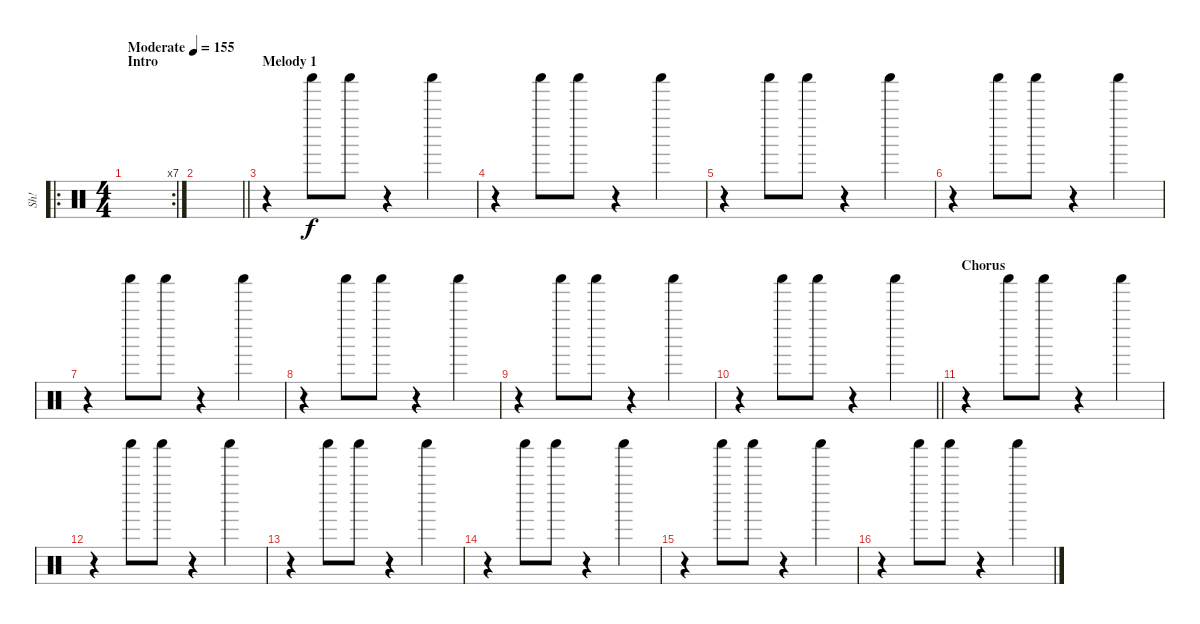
\track ("Sh!" "Sh!") {instrument percussion}
\staff {score}
\articulation defaults
\ro
\rc 7
\ts (4 4)
\section ("" "Intro")
\tempo (155 "Moderate")
\clef neutral
\ks c
|
\barLineRight lightlight
|
\section ("" "Melody 1")
r.4 "Shaker (hit)".8 "Shaker (hit)".8 r.4 "Shaker (hit)".4 |
r.4 "Shaker (hit)".8 "Shaker (hit)".8 r.4 "Shaker (hit)".4 |
r.4 "Shaker (hit)".8 "Shaker (hit)".8 r.4 "Shaker (hit)".4 |
r.4 "Shaker (hit)".8 "Shaker (hit)".8 r.4 "Shaker (hit)".4 |
r.4 "Shaker (hit)".8 "Shaker (hit)".8 r.4 "Shaker (hit)".4 |
r.4 "Shaker (hit)".8 "Shaker (hit)".8 r.4 "Shaker (hit)".4 |
r.4 "Shaker (hit)".8 "Shaker (hit)".8 r.4 "Shaker (hit)".4 |
\barLineRight lightlight
r.4 "Shaker (hit)".8 "Shaker (hit)".8 r.4 "Shaker (hit)".4 |
\section ("" "Chorus")
r.4 "Shaker (hit)".8 "Shaker (hit)".8 r.4 "Shaker (hit)".4 |
r.4 "Shaker (hit)".8 "Shaker (hit)".8 r.4 "Shaker (hit)".4 |
r.4 "Shaker (hit)".8 "Shaker (hit)".8 r.4 "Shaker (hit)".4 |
r.4 "Shaker (hit)".8 "Shaker (hit)".8 r.4 "Shaker (hit)".4 |
r.4 "Shaker (hit)".8 "Shaker (hit)".8 r.4 "Shaker (hit)".4 |
r.4 "Shaker (hit)".8 "Shaker (hit)".8 r.4 "Shaker (hit)".4
